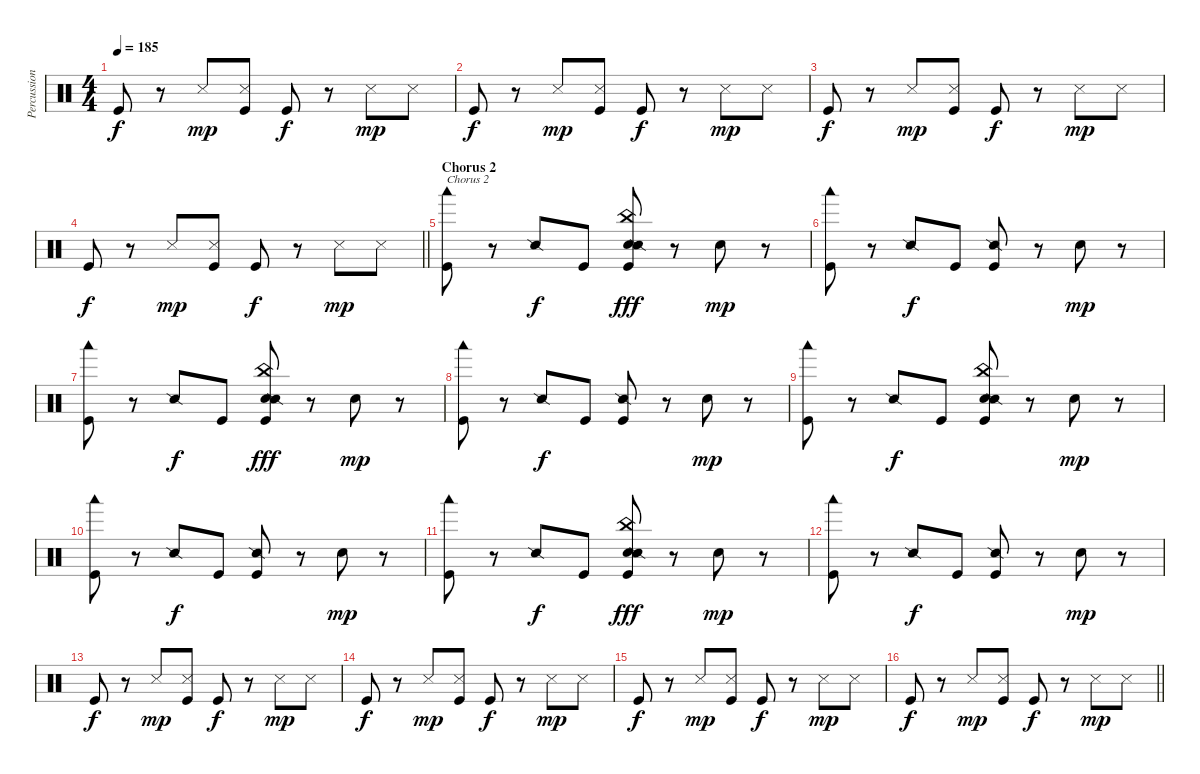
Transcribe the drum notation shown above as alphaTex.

\track ("Percussion" "Percussion") {instrument percussion}
\staff {score}
\articulation defaults
\ts (4 4)
\tempo 185
\clef neutral
\ks c "Kick (hit)".8{dy f}
r.8 "Metronome (hit)".8{dy mp} ("Metronome (hit)" "Kick (hit)").8 "Kick (hit)".8{dy f} r.8 "Snare (side stick) 3".8{dy mp} "Snare (side stick) 3".8 |
"Kick (hit)".8{dy f} r.8 "Metronome (hit)".8{dy mp} ("Metronome (hit)" "Kick (hit)").8 "Kick (hit)".8{dy f} r.8 "Snare (side stick) 3".8{dy mp} "Snare (side stick) 3".8 |
"Kick (hit)".8{dy f} r.8 "Metronome (hit)".8{dy mp} ("Metronome (hit)" "Kick (hit)").8 "Kick (hit)".8{dy f} r.8 "Snare (side stick) 3".8{dy mp} "Snare (side stick) 3".8 |
\barLineRight lightlight "Kick (hit)".8{dy f}
r.8 "Metronome (hit)".8{dy mp} ("Metronome (hit)" "Kick (hit)").8 "Kick (hit)".8{dy f} r.8 "Snare (side stick) 3".8{dy mp} "Snare (side stick) 3".8 |
\section ("" "Chorus 2")
("Woodblock low (hit)" "Kick (hit)").8{txt "Chorus 2"} r.8 "Snare (side stick) 2".8{dy f} "Kick (hit)".8 ("China (hit)" "Snare (hit) 2" "Snare (side stick) 2" "Kick (hit)").8{dy fff} r.8 "Electric Snare (hit)".8{dy mp} r.8 |
("Woodblock low (hit)" "Kick (hit)").8 r.8 "Snare (side stick) 2".8{dy f} "Kick (hit)".8 ("Snare (side stick) 2" "Kick (hit)").8 r.8 "Electric Snare (hit)".8{dy mp} r.8 |
("Woodblock low (hit)" "Kick (hit)").8 r.8 "Snare (side stick) 2".8{dy f} "Kick (hit)".8 ("China (hit)" "Snare (hit) 2" "Snare (side stick) 2" "Kick (hit)").8{dy fff} r.8 "Electric Snare (hit)".8{dy mp} r.8 |
("Woodblock low (hit)" "Kick (hit)").8 r.8 "Snare (side stick) 2".8{dy f} "Kick (hit)".8 ("Snare (side stick) 2" "Kick (hit)").8 r.8 "Electric Snare (hit)".8{dy mp} r.8 |
("Woodblock low (hit)" "Kick (hit)").8 r.8 "Snare (side stick) 2".8{dy f} "Kick (hit)".8 ("China (hit)" "Snare (hit) 2" "Snare (side stick) 2" "Kick (hit)").8 r.8 "Electric Snare (hit)".8{dy mp} r.8 |
("Woodblock low (hit)" "Kick (hit)").8 r.8 "Snare (side stick) 2".8{dy f} "Kick (hit)".8 ("Snare (side stick) 2" "Kick (hit)").8 r.8 "Electric Snare (hit)".8{dy mp} r.8 |
("Woodblock low (hit)" "Kick (hit)").8 r.8 "Snare (side stick) 2".8{dy f} "Kick (hit)".8 ("China (hit)" "Snare (hit) 2" "Snare (side stick) 2" "Kick (hit)").8{dy fff} r.8 "Electric Snare (hit)".8{dy mp} r.8 |
("Woodblock low (hit)" "Kick (hit)").8 r.8 "Snare (side stick) 2".8{dy f} "Kick (hit)".8 ("Snare (side stick) 2" "Kick (hit)").8 r.8 "Electric Snare (hit)".8{dy mp} r.8 |
"Kick (hit)".8{dy f} r.8 "Metronome (hit)".8{dy mp} ("Metronome (hit)" "Kick (hit)").8 "Kick (hit)".8{dy f} r.8 "Snare (side stick) 3".8{dy mp} "Snare (side stick) 3".8 |
"Kick (hit)".8{dy f} r.8 "Metronome (hit)".8{dy mp} ("Metronome (hit)" "Kick (hit)").8 "Kick (hit)".8{dy f} r.8 "Snare (side stick) 3".8{dy mp} "Snare (side stick) 3".8 |
"Kick (hit)".8{dy f} r.8 "Metronome (hit)".8{dy mp} ("Metronome (hit)" "Kick (hit)").8 "Kick (hit)".8{dy f} r.8 "Snare (side stick) 3".8{dy mp} "Snare (side stick) 3".8 |
\barLineRight lightlight "Kick (hit)".8{dy f}
r.8 "Metronome (hit)".8{dy mp} ("Metronome (hit)" "Kick (hit)").8 "Kick (hit)".8{dy f} r.8 "Snare (side stick) 3".8{dy mp} "Snare (side stick) 3".8
